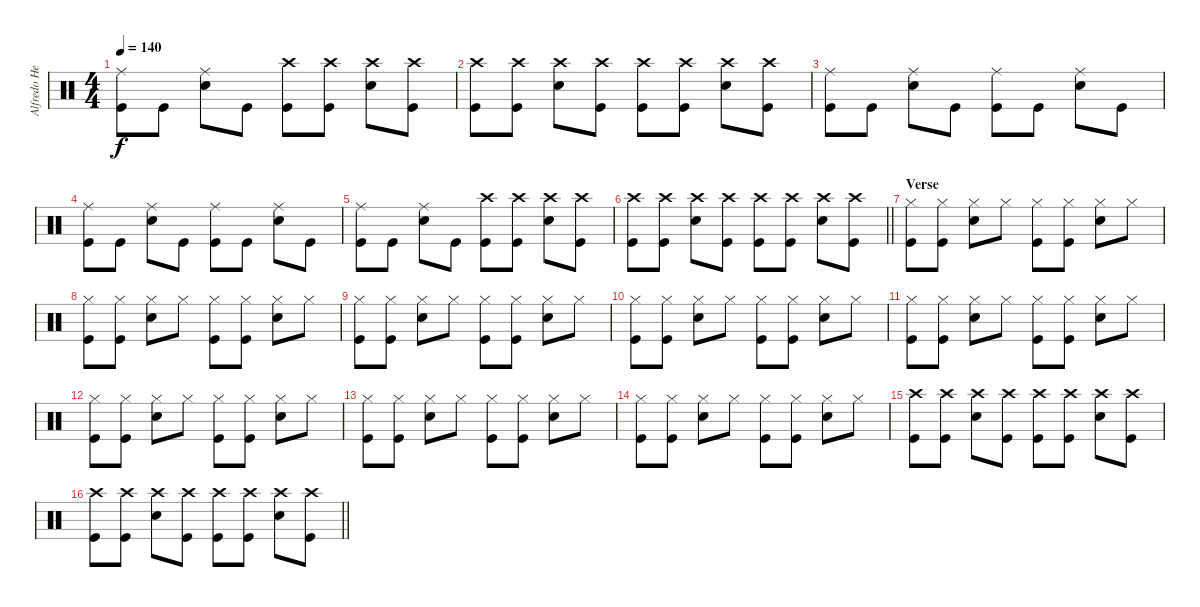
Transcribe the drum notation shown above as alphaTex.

\track ("Alfredo Hernandez - Percussion" "Alfredo He") {instrument percussion}
\staff {score}
\articulation defaults
\ts (4 4)
\tempo 140
\clef neutral
\ks c
("Kick (hit)" "Ride (middle)").8{dy f} "Kick (hit)".8 ("Snare (hit) 2" "Ride (middle)").8 "Kick (hit)".8 ("Kick (hit)" "Crash high (hit)").8 ("Kick (hit)" "Crash high (hit)").8 ("Snare (hit) 2" "Crash high (hit)").8 ("Kick (hit)" "Crash high (hit)").8 |
("Kick (hit)" "Crash high (hit)").8 ("Kick (hit)" "Crash high (hit)").8 ("Snare (hit) 2" "Crash high (hit)").8 ("Kick (hit)" "Crash high (hit)").8 ("Kick (hit)" "Crash high (hit)").8 ("Kick (hit)" "Crash high (hit)").8 ("Snare (hit) 2" "Crash high (hit)").8 ("Kick (hit)" "Crash high (hit)").8 |
("Kick (hit)" "Ride (middle)").8 "Kick (hit)".8 ("Snare (hit) 2" "Ride (middle)").8 "Kick (hit)".8 ("Kick (hit)" "Ride (middle)").8 "Kick (hit)".8 ("Snare (hit) 2" "Ride (middle)").8 "Kick (hit)".8 |
("Kick (hit)" "Ride (middle)").8 "Kick (hit)".8 ("Snare (hit) 2" "Ride (middle)").8 "Kick (hit)".8 ("Kick (hit)" "Ride (middle)").8 "Kick (hit)".8 ("Snare (hit) 2" "Ride (middle)").8 "Kick (hit)".8 |
("Kick (hit)" "Ride (middle)").8 "Kick (hit)".8 ("Snare (hit) 2" "Ride (middle)").8 "Kick (hit)".8 ("Kick (hit)" "Crash high (hit)").8 ("Kick (hit)" "Crash high (hit)").8 ("Snare (hit) 2" "Crash high (hit)").8 ("Kick (hit)" "Crash high (hit)").8 |
\barLineRight lightlight
("Kick (hit)" "Crash high (hit)").8 ("Kick (hit)" "Crash high (hit)").8 ("Snare (hit) 2" "Crash high (hit)").8 ("Kick (hit)" "Crash high (hit)").8 ("Kick (hit)" "Crash high (hit)").8 ("Kick (hit)" "Crash high (hit)").8 ("Snare (hit) 2" "Crash high (hit)").8 ("Kick (hit)" "Crash high (hit)").8 |
\section ("" "Verse")
("Kick (hit)" "Hi-Hat (closed)").8 ("Kick (hit)" "Hi-Hat (closed)").8 ("Snare (hit) 2" "Hi-Hat (closed)").8 "Hi-Hat (closed)".8 ("Kick (hit)" "Hi-Hat (closed)").8 ("Kick (hit)" "Hi-Hat (closed)").8 ("Snare (hit) 2" "Hi-Hat (closed)").8 "Hi-Hat (closed)".8 |
("Kick (hit)" "Hi-Hat (closed)").8 ("Kick (hit)" "Hi-Hat (closed)").8 ("Snare (hit) 2" "Hi-Hat (closed)").8 "Hi-Hat (closed)".8 ("Kick (hit)" "Hi-Hat (closed)").8 ("Kick (hit)" "Hi-Hat (closed)").8 ("Snare (hit) 2" "Hi-Hat (closed)").8 "Hi-Hat (closed)".8 |
("Kick (hit)" "Hi-Hat (closed)").8 ("Kick (hit)" "Hi-Hat (closed)").8 ("Snare (hit) 2" "Hi-Hat (closed)").8 "Hi-Hat (closed)".8 ("Kick (hit)" "Hi-Hat (closed)").8 ("Kick (hit)" "Hi-Hat (closed)").8 ("Snare (hit) 2" "Hi-Hat (closed)").8 "Hi-Hat (closed)".8 |
("Kick (hit)" "Hi-Hat (closed)").8 ("Kick (hit)" "Hi-Hat (closed)").8 ("Snare (hit) 2" "Hi-Hat (closed)").8 "Hi-Hat (closed)".8 ("Kick (hit)" "Hi-Hat (closed)").8 ("Kick (hit)" "Hi-Hat (closed)").8 ("Snare (hit) 2" "Hi-Hat (closed)").8 "Hi-Hat (closed)".8 |
("Kick (hit)" "Hi-Hat (closed)").8 ("Kick (hit)" "Hi-Hat (closed)").8 ("Snare (hit) 2" "Hi-Hat (closed)").8 "Hi-Hat (closed)".8 ("Kick (hit)" "Hi-Hat (closed)").8 ("Kick (hit)" "Hi-Hat (closed)").8 ("Snare (hit) 2" "Hi-Hat (closed)").8 "Hi-Hat (closed)".8 |
("Kick (hit)" "Hi-Hat (closed)").8 ("Kick (hit)" "Hi-Hat (closed)").8 ("Snare (hit) 2" "Hi-Hat (closed)").8 "Hi-Hat (closed)".8 ("Kick (hit)" "Hi-Hat (closed)").8 ("Kick (hit)" "Hi-Hat (closed)").8 ("Snare (hit) 2" "Hi-Hat (closed)").8 "Hi-Hat (closed)".8 |
("Kick (hit)" "Hi-Hat (closed)").8 ("Kick (hit)" "Hi-Hat (closed)").8 ("Snare (hit) 2" "Hi-Hat (closed)").8 "Hi-Hat (closed)".8 ("Kick (hit)" "Hi-Hat (closed)").8 ("Kick (hit)" "Hi-Hat (closed)").8 ("Snare (hit) 2" "Hi-Hat (closed)").8 "Hi-Hat (closed)".8 |
("Kick (hit)" "Hi-Hat (closed)").8 ("Kick (hit)" "Hi-Hat (closed)").8 ("Snare (hit) 2" "Hi-Hat (closed)").8 "Hi-Hat (closed)".8 ("Kick (hit)" "Hi-Hat (closed)").8 ("Kick (hit)" "Hi-Hat (closed)").8 ("Snare (hit) 2" "Hi-Hat (closed)").8 "Hi-Hat (closed)".8 |
("Kick (hit)" "Crash high (hit)").8 ("Kick (hit)" "Crash high (hit)").8 ("Snare (hit) 2" "Crash high (hit)").8 ("Kick (hit)" "Crash high (hit)").8 ("Kick (hit)" "Crash high (hit)").8 ("Kick (hit)" "Crash high (hit)").8 ("Snare (hit) 2" "Crash high (hit)").8 ("Kick (hit)" "Crash high (hit)").8 |
\barLineRight lightlight
("Kick (hit)" "Crash high (hit)").8 ("Kick (hit)" "Crash high (hit)").8 ("Snare (hit) 2" "Crash high (hit)").8 ("Kick (hit)" "Crash high (hit)").8 ("Kick (hit)" "Crash high (hit)").8 ("Kick (hit)" "Crash high (hit)").8 ("Snare (hit) 2" "Crash high (hit)").8 ("Kick (hit)" "Crash high (hit)").8
